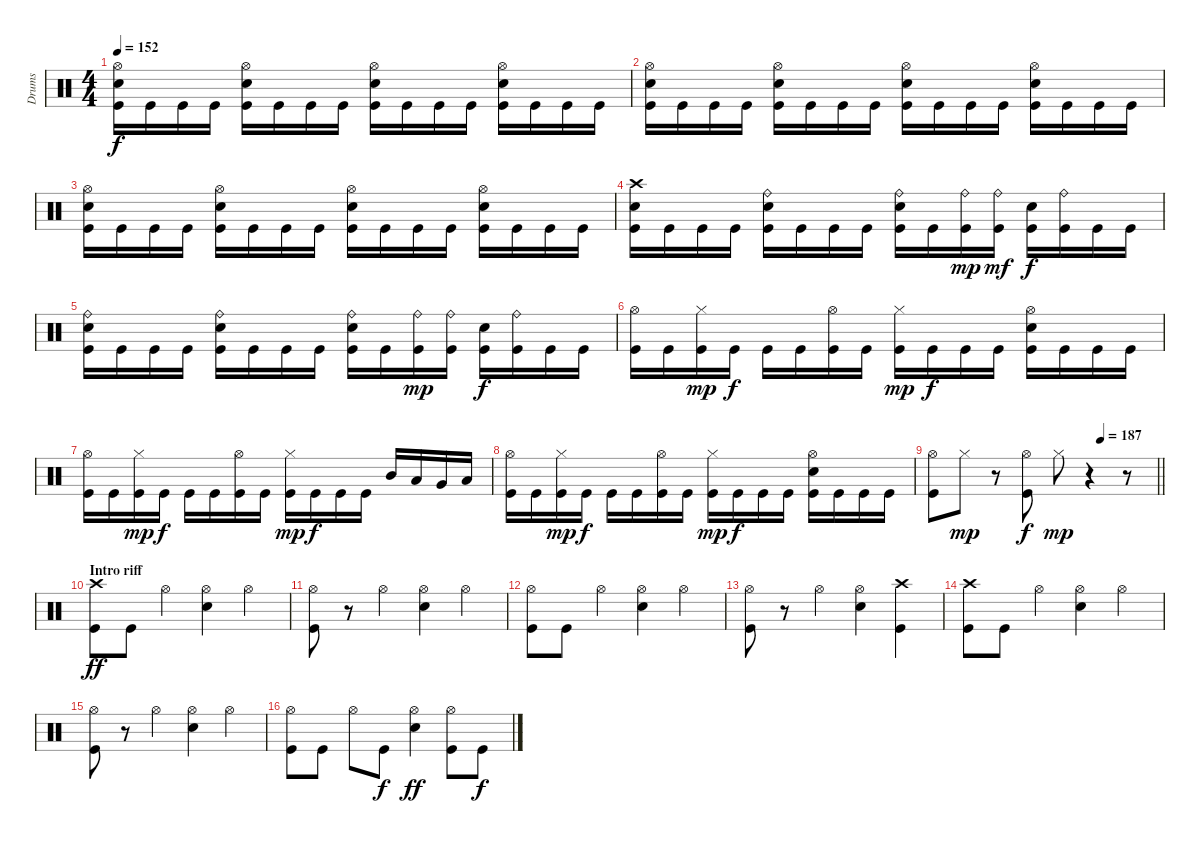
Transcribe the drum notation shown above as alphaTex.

\track ("Drums" "Drums") {instrument percussion}
\staff {score}
\articulation defaults
\ts (4 4)
\tempo 152
\clef neutral
\ks c
("Hi-Hat (open)" "Electric Snare (hit)" "Kick (hit)").16{dy f} "Kick (hit)".16 "Kick (hit)".16 "Kick (hit)".16 ("Hi-Hat (open)" "Electric Snare (hit)" "Kick (hit)").16 "Kick (hit)".16 "Kick (hit)".16 "Kick (hit)".16 ("Hi-Hat (open)" "Electric Snare (hit)" "Kick (hit)").16 "Kick (hit)".16 "Kick (hit)".16 "Kick (hit)".16 ("Hi-Hat (open)" "Electric Snare (hit)" "Kick (hit)").16 "Kick (hit)".16 "Kick (hit)".16 "Kick (hit)".16 |
("Hi-Hat (open)" "Electric Snare (hit)" "Kick (hit)").16 "Kick (hit)".16 "Kick (hit)".16 "Kick (hit)".16 ("Hi-Hat (open)" "Electric Snare (hit)" "Kick (hit)").16 "Kick (hit)".16 "Kick (hit)".16 "Kick (hit)".16 ("Hi-Hat (open)" "Electric Snare (hit)" "Kick (hit)").16 "Kick (hit)".16 "Kick (hit)".16 "Kick (hit)".16 ("Hi-Hat (open)" "Electric Snare (hit)" "Kick (hit)").16 "Kick (hit)".16 "Kick (hit)".16 "Kick (hit)".16 |
("Hi-Hat (open)" "Electric Snare (hit)" "Kick (hit)").16 "Kick (hit)".16 "Kick (hit)".16 "Kick (hit)".16 ("Hi-Hat (open)" "Electric Snare (hit)" "Kick (hit)").16 "Kick (hit)".16 "Kick (hit)".16 "Kick (hit)".16 ("Hi-Hat (open)" "Electric Snare (hit)" "Kick (hit)").16 "Kick (hit)".16 "Kick (hit)".16 "Kick (hit)".16 ("Hi-Hat (open)" "Electric Snare (hit)" "Kick (hit)").16 "Kick (hit)".16 "Kick (hit)".16 "Kick (hit)".16 |
("Crash high (hit)" "Electric Snare (hit)" "Kick (hit)").16 "Kick (hit)".16 "Kick (hit)".16 "Kick (hit)".16 ("Ride (bell)" "Electric Snare (hit)" "Kick (hit)").16 "Kick (hit)".16 "Kick (hit)".16 "Kick (hit)".16 ("Ride (bell)" "Electric Snare (hit)" "Kick (hit)").16 "Kick (hit)".16 ("Ride (bell)" "Kick (hit)").16{dy mp} ("Ride (bell)" "Kick (hit)").16{dy mf} ("Electric Snare (hit)" "Kick (hit)").16{dy f} ("Ride (bell)" "Kick (hit)").16 "Kick (hit)".16 "Kick (hit)".16 |
("Ride (bell)" "Electric Snare (hit)" "Kick (hit)").16 "Kick (hit)".16 "Kick (hit)".16 "Kick (hit)".16 ("Ride (bell)" "Electric Snare (hit)" "Kick (hit)").16 "Kick (hit)".16 "Kick (hit)".16 "Kick (hit)".16 ("Ride (bell)" "Electric Snare (hit)" "Kick (hit)").16 "Kick (hit)".16 ("Ride (bell)" "Kick (hit)").16{dy mp} ("Ride (bell)" "Kick (hit)").16 ("Electric Snare (hit)" "Kick (hit)").16{dy f} ("Ride (bell)" "Kick (hit)").16 "Kick (hit)".16 "Kick (hit)".16 |
("Hi-Hat (open)" "Kick (hit)").16 "Kick (hit)".16 ("Hi-Hat (closed)" "Kick (hit)").16{dy mp} "Kick (hit)".16{dy f} "Kick (hit)".16 "Kick (hit)".16 ("Hi-Hat (open)" "Kick (hit)").16 "Kick (hit)".16 ("Hi-Hat (closed)" "Kick (hit)").16{dy mp} "Kick (hit)".16{dy f} "Kick (hit)".16 "Kick (hit)".16 ("Hi-Hat (open)" "Electric Snare (hit)" "Kick (hit)").16 "Kick (hit)".16 "Kick (hit)".16 "Kick (hit)".16 |
("Hi-Hat (open)" "Kick (hit)").16 "Kick (hit)".16 ("Hi-Hat (closed)" "Kick (hit)").16{dy mp} "Kick (hit)".16{dy f} "Kick (hit)".16 "Kick (hit)".16 ("Hi-Hat (open)" "Kick (hit)").16 "Kick (hit)".16 ("Hi-Hat (closed)" "Kick (hit)").16{dy mp} "Kick (hit)".16{dy f} "Kick (hit)".16 "Kick (hit)".16 "Mid Tom (hit)".16 "Low Tom (hit)".16 "Very Low Tom (hit)".16 "Low Floor Tom (hit)".16 |
("Hi-Hat (open)" "Kick (hit)").16 "Kick (hit)".16 ("Hi-Hat (closed)" "Kick (hit)").16{dy mp} "Kick (hit)".16{dy f} "Kick (hit)".16 "Kick (hit)".16 ("Hi-Hat (open)" "Kick (hit)").16 "Kick (hit)".16 ("Hi-Hat (closed)" "Kick (hit)").16{dy mp} "Kick (hit)".16{dy f} "Kick (hit)".16 "Kick (hit)".16 ("Hi-Hat (open)" "Electric Snare (hit)" "Kick (hit)").16 "Kick (hit)".16 "Kick (hit)".16 "Kick (hit)".16 |
\tempo (187 0.75)
\barLineRight lightlight
("Hi-Hat (open)" "Kick (hit)").8 "Hi-Hat (closed)".8{dy mp} r.8 ("Hi-Hat (open)" "Kick (hit)").8{dy f} "Hi-Hat (closed)".8{dy mp} r.4 r.8 |
\section ("" "Intro riff")
("Crash high (hit)" "Kick (hit)").8{dy ff} "Kick (hit)".8 "Hi-Hat (open)".4 ("Hi-Hat (open)" "Electric Snare (hit)").4 "Hi-Hat (open)".4 |
("Hi-Hat (open)" "Kick (hit)").8 r.8 "Hi-Hat (open)".4 ("Hi-Hat (open)" "Electric Snare (hit)").4 "Hi-Hat (open)".4 |
("Hi-Hat (open)" "Kick (hit)").8 "Kick (hit)".8 "Hi-Hat (open)".4 ("Hi-Hat (open)" "Electric Snare (hit)").4 "Hi-Hat (open)".4 |
("Hi-Hat (open)" "Kick (hit)").8 r.8 "Hi-Hat (open)".4 ("Hi-Hat (open)" "Electric Snare (hit)").4 ("Crash high (hit)" "Kick (hit)").4 |
("Crash high (hit)" "Kick (hit)").8 "Kick (hit)".8 "Hi-Hat (open)".4 ("Hi-Hat (open)" "Electric Snare (hit)").4 "Hi-Hat (open)".4 |
("Hi-Hat (open)" "Kick (hit)").8 r.8 "Hi-Hat (open)".4 ("Hi-Hat (open)" "Electric Snare (hit)").4 "Hi-Hat (open)".4 |
("Hi-Hat (open)" "Kick (hit)").8 "Kick (hit)".8 "Hi-Hat (open)".8 "Kick (hit)".8{dy f} ("Hi-Hat (open)" "Electric Snare (hit)").4{dy ff} ("Hi-Hat (open)" "Kick (hit)").8 "Kick (hit)".8{dy f}
